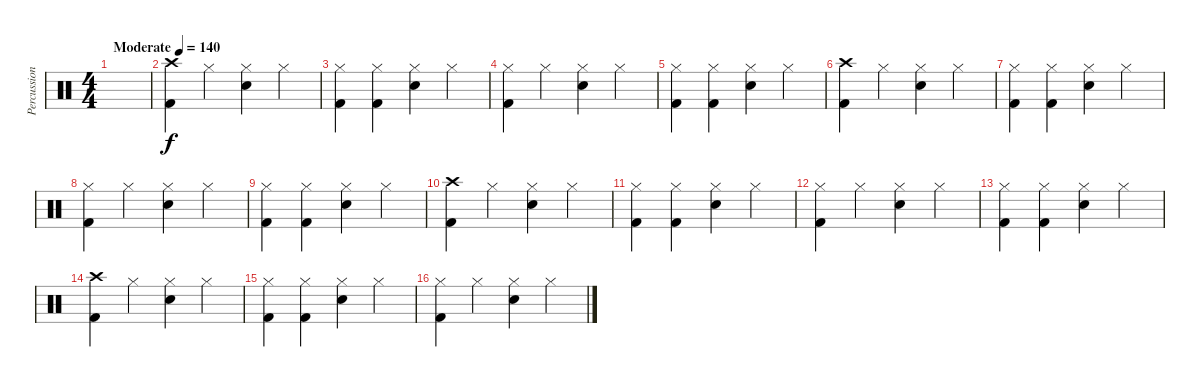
\track ("Percussion" "Percussion") {instrument percussion}
\staff {score}
\articulation defaults
\ts (4 4)
\tempo (140 "Moderate")
\clef neutral
\ks c
|
("Crash high (hit)" "Kick (hit) 2").4 "Hi-Hat (closed)".4 ("Hi-Hat (closed)" "Electric Snare (hit)").4 "Hi-Hat (closed)".4 |
("Hi-Hat (closed)" "Kick (hit) 2").4 ("Hi-Hat (closed)" "Kick (hit) 2").4 ("Hi-Hat (closed)" "Electric Snare (hit)").4 "Hi-Hat (closed)".4 |
("Hi-Hat (closed)" "Kick (hit) 2").4 "Hi-Hat (closed)".4 ("Hi-Hat (closed)" "Electric Snare (hit)").4 "Hi-Hat (closed)".4 |
("Hi-Hat (closed)" "Kick (hit) 2").4 ("Hi-Hat (closed)" "Kick (hit) 2").4 ("Hi-Hat (closed)" "Electric Snare (hit)").4 "Hi-Hat (closed)".4 |
("Crash high (hit)" "Kick (hit) 2").4 "Hi-Hat (closed)".4 ("Hi-Hat (closed)" "Electric Snare (hit)").4 "Hi-Hat (closed)".4 |
("Hi-Hat (closed)" "Kick (hit) 2").4 ("Hi-Hat (closed)" "Kick (hit) 2").4 ("Hi-Hat (closed)" "Electric Snare (hit)").4 "Hi-Hat (closed)".4 |
("Hi-Hat (closed)" "Kick (hit) 2").4 "Hi-Hat (closed)".4 ("Hi-Hat (closed)" "Electric Snare (hit)").4 "Hi-Hat (closed)".4 |
("Hi-Hat (closed)" "Kick (hit) 2").4 ("Hi-Hat (closed)" "Kick (hit) 2").4 ("Hi-Hat (closed)" "Electric Snare (hit)").4 "Hi-Hat (closed)".4 |
("Crash high (hit)" "Kick (hit) 2").4 "Hi-Hat (closed)".4 ("Hi-Hat (closed)" "Electric Snare (hit)").4 "Hi-Hat (closed)".4 |
("Hi-Hat (closed)" "Kick (hit) 2").4 ("Hi-Hat (closed)" "Kick (hit) 2").4 ("Hi-Hat (closed)" "Electric Snare (hit)").4 "Hi-Hat (closed)".4 |
("Hi-Hat (closed)" "Kick (hit) 2").4 "Hi-Hat (closed)".4 ("Hi-Hat (closed)" "Electric Snare (hit)").4 "Hi-Hat (closed)".4 |
("Hi-Hat (closed)" "Kick (hit) 2").4 ("Hi-Hat (closed)" "Kick (hit) 2").4 ("Hi-Hat (closed)" "Electric Snare (hit)").4 "Hi-Hat (closed)".4 |
("Crash high (hit)" "Kick (hit) 2").4 "Hi-Hat (closed)".4 ("Hi-Hat (closed)" "Electric Snare (hit)").4 "Hi-Hat (closed)".4 |
("Hi-Hat (closed)" "Kick (hit) 2").4 ("Hi-Hat (closed)" "Kick (hit) 2").4 ("Hi-Hat (closed)" "Electric Snare (hit)").4 "Hi-Hat (closed)".4 |
("Hi-Hat (closed)" "Kick (hit) 2").4 "Hi-Hat (closed)".4 ("Hi-Hat (closed)" "Electric Snare (hit)").4 "Hi-Hat (closed)".4
